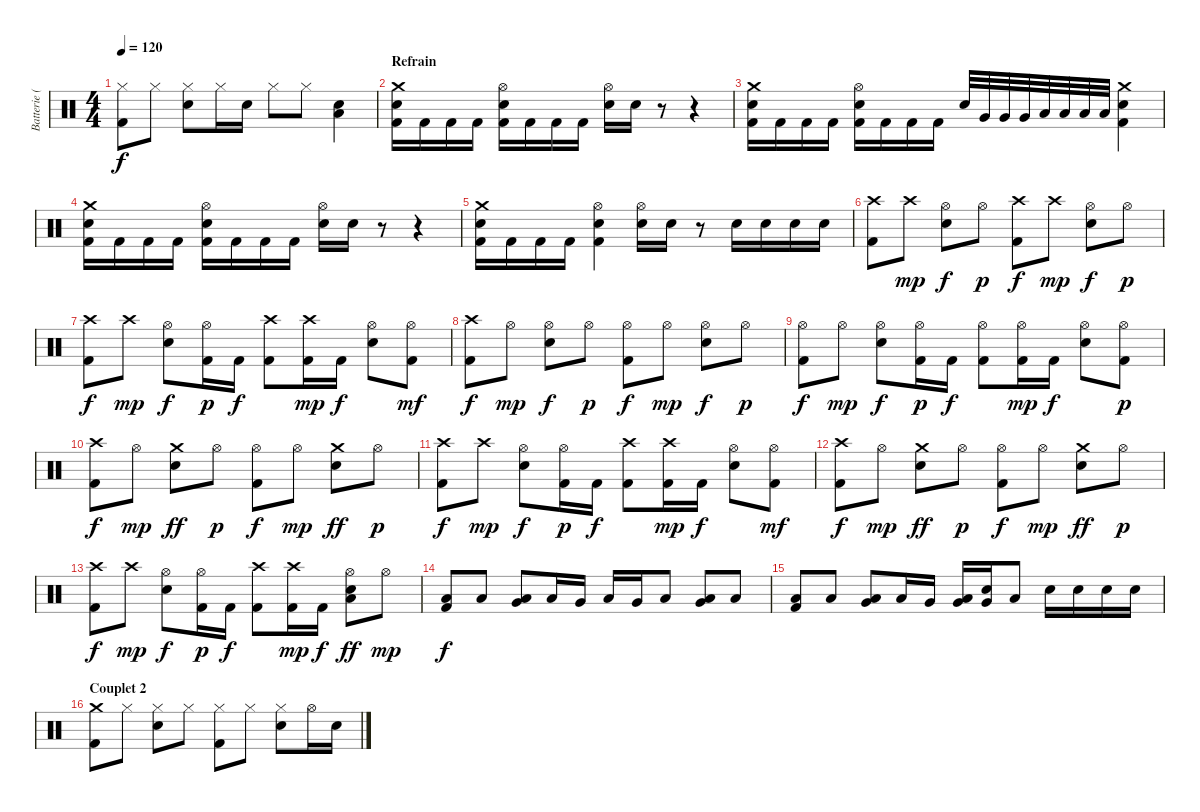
\track ("Batterie (Racci \"Sketchy\" Shay)" "Batterie (") {instrument percussion}
\staff {score}
\articulation defaults
\ts (4 4)
\tempo 120
\clef neutral
\ks c
("Hi-Hat (closed)" "Kick (hit) 2").8{dy f} "Hi-Hat (closed)".8 ("Hi-Hat (closed)" "Electric Snare (hit)").8 "Hi-Hat (closed)".16 "Electric Snare (hit)".16 "Hi-Hat (closed)".8 "Hi-Hat (closed)".8 ("Electric Snare (hit)" "Low Floor Tom (hit)").4 |
\section ("" "Refrain")
("Crash medium (hit)" "Electric Snare (hit)" "Kick (hit) 2").16 "Kick (hit) 2".16 "Kick (hit) 2".16 "Kick (hit) 2".16 ("Hi-Hat (open)" "Electric Snare (hit)" "Kick (hit) 2").16 "Kick (hit) 2".16 "Kick (hit) 2".16 "Kick (hit) 2".16 ("Hi-Hat (open)" "Electric Snare (hit)").16 "Electric Snare (hit)".16 r.8 r.4 |
("Crash medium (hit)" "Electric Snare (hit)" "Kick (hit) 2").16 "Kick (hit) 2".16 "Kick (hit) 2".16 "Kick (hit) 2".16 ("Hi-Hat (open)" "Electric Snare (hit)" "Kick (hit) 2").16 "Kick (hit) 2".16 "Kick (hit) 2".16 "Kick (hit) 2".16 "Electric Snare (hit)".32 "Very Low Tom (hit)".32 "Very Low Tom (hit)".32 "Very Low Tom (hit)".32 "Low Floor Tom (hit)".32 "Low Floor Tom (hit)".32 "Low Floor Tom (hit)".32 "Low Floor Tom (hit)".32 ("Crash medium (hit)" "Electric Snare (hit)" "Kick (hit) 2").4 |
("Crash medium (hit)" "Electric Snare (hit)" "Kick (hit) 2").16 "Kick (hit) 2".16 "Kick (hit) 2".16 "Kick (hit) 2".16 ("Hi-Hat (open)" "Electric Snare (hit)" "Kick (hit) 2").16 "Kick (hit) 2".16 "Kick (hit) 2".16 "Kick (hit) 2".16 ("Hi-Hat (open)" "Electric Snare (hit)").16 "Electric Snare (hit)".16 r.8 r.4 |
("Crash medium (hit)" "Electric Snare (hit)" "Kick (hit) 2").16 "Kick (hit) 2".16 "Kick (hit) 2".16 "Kick (hit) 2".16 ("Hi-Hat (open)" "Electric Snare (hit)" "Kick (hit) 2").4 ("Hi-Hat (open)" "Electric Snare (hit)").16 "Electric Snare (hit)".16 r.8 "Electric Snare (hit)".16 "Electric Snare (hit)".16 "Electric Snare (hit)".16 "Electric Snare (hit)".16 |
("Crash high (hit)" "Kick (hit) 2").8 "Crash high (hit)".8{dy mp} ("Hi-Hat (open)" "Electric Snare (hit)").8{dy f} "Hi-Hat (open)".8{dy p} ("Crash high (hit)" "Kick (hit) 2").8{dy f} "Crash high (hit)".8{dy mp} ("Hi-Hat (open)" "Electric Snare (hit)").8{dy f} "Hi-Hat (open)".8{dy p} |
("Crash high (hit)" "Kick (hit) 2").8{dy f} "Crash high (hit)".8{dy mp} ("Hi-Hat (open)" "Electric Snare (hit)").8{dy f} ("Hi-Hat (open)" "Kick (hit) 2").16{dy p} "Kick (hit) 2".16{dy f} ("Crash high (hit)" "Kick (hit) 2").8 ("Crash high (hit)" "Kick (hit) 2").16{dy mp} "Kick (hit) 2".16{dy f} ("Hi-Hat (open)" "Electric Snare (hit)").8 ("Hi-Hat (open)" "Kick (hit) 2").8{dy mf} |
("Crash high (hit)" "Kick (hit) 2").8{dy f} "Hi-Hat (open)".8{dy mp} ("Hi-Hat (open)" "Electric Snare (hit)").8{dy f} "Hi-Hat (open)".8{dy p} ("Hi-Hat (open)" "Kick (hit) 2").8{dy f} "Hi-Hat (open)".8{dy mp} ("Hi-Hat (open)" "Electric Snare (hit)").8{dy f} "Hi-Hat (open)".8{dy p} |
("Hi-Hat (open)" "Kick (hit) 2").8{dy f} "Hi-Hat (open)".8{dy mp} ("Hi-Hat (open)" "Electric Snare (hit)").8{dy f} ("Hi-Hat (open)" "Kick (hit) 2").16{dy p} "Kick (hit) 2".16{dy f} ("Hi-Hat (open)" "Kick (hit) 2").8 ("Hi-Hat (open)" "Kick (hit) 2").16{dy mp} "Kick (hit) 2".16{dy f} ("Hi-Hat (open)" "Electric Snare (hit)").8 ("Hi-Hat (open)" "Kick (hit) 2").8{dy p} |
("Crash high (hit)" "Kick (hit) 2").8{dy f} "Hi-Hat (open)".8{dy mp} ("Crash medium (hit)" "Electric Snare (hit)").8{dy ff} "Hi-Hat (open)".8{dy p} ("Hi-Hat (open)" "Kick (hit) 2").8{dy f} "Hi-Hat (open)".8{dy mp} ("Crash medium (hit)" "Electric Snare (hit)").8{dy ff} "Hi-Hat (open)".8{dy p} |
("Crash high (hit)" "Kick (hit) 2").8{dy f} "Crash high (hit)".8{dy mp} ("Hi-Hat (open)" "Electric Snare (hit)").8{dy f} ("Hi-Hat (open)" "Kick (hit) 2").16{dy p} "Kick (hit) 2".16{dy f} ("Crash high (hit)" "Kick (hit) 2").8 ("Crash high (hit)" "Kick (hit) 2").16{dy mp} "Kick (hit) 2".16{dy f} ("Hi-Hat (open)" "Electric Snare (hit)").8 ("Hi-Hat (open)" "Kick (hit) 2").8{dy mf} |
("Crash high (hit)" "Kick (hit) 2").8{dy f} "Hi-Hat (open)".8{dy mp} ("Crash medium (hit)" "Electric Snare (hit)").8{dy ff} "Hi-Hat (open)".8{dy p} ("Hi-Hat (open)" "Kick (hit) 2").8{dy f} "Hi-Hat (open)".8{dy mp} ("Crash medium (hit)" "Electric Snare (hit)").8{dy ff} "Hi-Hat (open)".8{dy p} |
("Crash high (hit)" "Kick (hit) 2").8{dy f} "Crash high (hit)".8{dy mp} ("Hi-Hat (open)" "Electric Snare (hit)").8{dy f} ("Hi-Hat (open)" "Kick (hit) 2").16{dy p} "Kick (hit) 2".16{dy f} ("Crash high (hit)" "Kick (hit) 2").8 ("Crash high (hit)" "Kick (hit) 2").16{dy mp} "Kick (hit) 2".16{dy f} ("Hi-Hat (open)" "Electric Snare (hit)" "Low Floor Tom (hit)").8{dy ff} "Hi-Hat (open)".8{dy mp} |
("Low Floor Tom (hit)" "Kick (hit) 2").8{dy f} "Low Floor Tom (hit)".8 ("Very Low Tom (hit)" "Low Floor Tom (hit)").8 "Low Floor Tom (hit)".16 "Very Low Tom (hit)".16 "Low Floor Tom (hit)".16 "Very Low Tom (hit)".16 "Low Floor Tom (hit)".8 ("Very Low Tom (hit)" "Low Floor Tom (hit)").8 "Low Floor Tom (hit)".8 |
("Low Floor Tom (hit)" "Kick (hit) 2").8 "Low Floor Tom (hit)".8 ("Very Low Tom (hit)" "Low Floor Tom (hit)").8 "Low Floor Tom (hit)".16 "Very Low Tom (hit)".16 ("Very Low Tom (hit)" "Low Floor Tom (hit)").16 ("Hand Clap (hit)" "Very Low Tom (hit)").16 "Low Floor Tom (hit)".8 "Electric Snare (hit)".16 "Electric Snare (hit)".16 "Electric Snare (hit)".16 "Electric Snare (hit)".16 |
\section ("" "Couplet 2")
("Crash medium (hit)" "Kick (hit) 2").8 "Hi-Hat (closed)".8 ("Hi-Hat (closed)" "Electric Snare (hit)").8 "Hi-Hat (closed)".8 ("Hi-Hat (closed)" "Kick (hit) 2").8 "Hi-Hat (closed)".8 ("Hi-Hat (closed)" "Electric Snare (hit)").8 "Hi-Hat (open)".16 "Electric Snare (hit)".16
